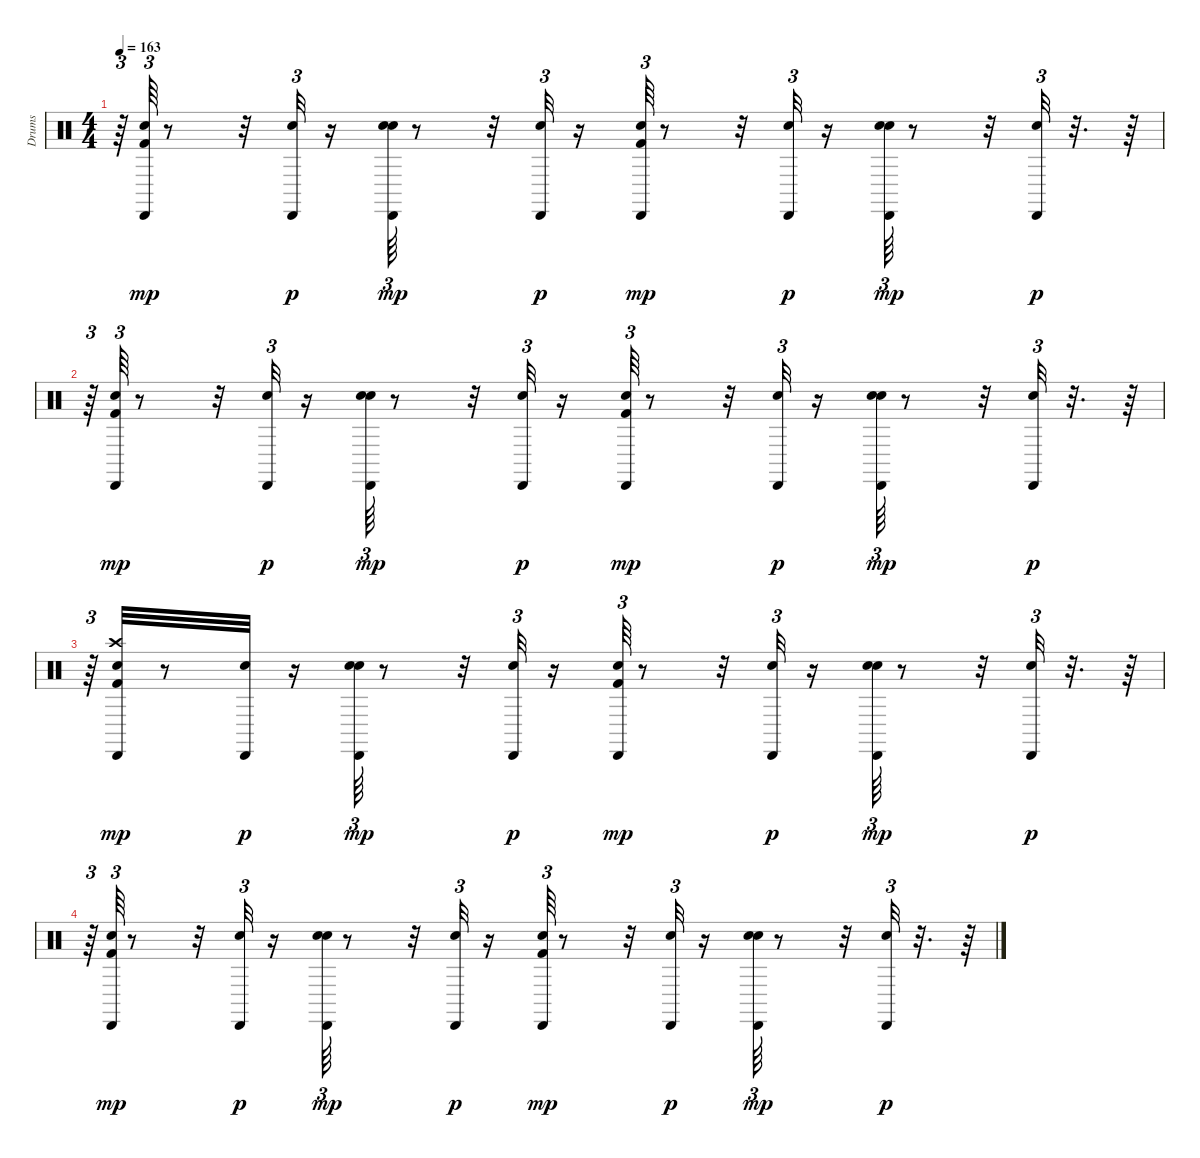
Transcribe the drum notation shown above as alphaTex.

\track ("Drums               " "Drums     ") {instrument percussion}
\staff {score}
\articulation defaults
\ts (4 4)
\tempo 163
\clef neutral
\ks c
r.64{tu (3 2) dy p} ("Kick (hit) 2" "Snare (hit) 2" "Cabasa (hit)").64{tu (3 2) dy mp} r.8 r.32 ("Snare (hit) 2" "Cabasa (hit)").32{tu (3 2) dy p} r.16 ("Snare (hit) 2" "Hand Clap (hit)" "Cabasa (hit)").64{tu (3 2) dy mp} r.8 r.32 ("Snare (hit) 2" "Cabasa (hit)").32{tu (3 2) dy p} r.16 ("Kick (hit) 2" "Snare (hit) 2" "Cabasa (hit)").64{tu (3 2) dy mp} r.8 r.32 ("Snare (hit) 2" "Cabasa (hit)").32{tu (3 2) dy p} r.16 ("Snare (hit) 2" "Hand Clap (hit)" "Cabasa (hit)").64{tu (3 2) dy mp} r.8 r.32 ("Snare (hit) 2" "Cabasa (hit)").32{tu (3 2) dy p} r.32{d} r.64 |
r.64{tu (3 2)} ("Kick (hit) 2" "Snare (hit) 2" "Cabasa (hit)").64{tu (3 2) dy mp} r.8 r.32 ("Snare (hit) 2" "Cabasa (hit)").32{tu (3 2) dy p} r.16 ("Snare (hit) 2" "Hand Clap (hit)" "Cabasa (hit)").64{tu (3 2) dy mp} r.8 r.32 ("Snare (hit) 2" "Cabasa (hit)").32{tu (3 2) dy p} r.16 ("Kick (hit) 2" "Snare (hit) 2" "Cabasa (hit)").64{tu (3 2) dy mp} r.8 r.32 ("Snare (hit) 2" "Cabasa (hit)").32{tu (3 2) dy p} r.16 ("Snare (hit) 2" "Hand Clap (hit)" "Cabasa (hit)").64{tu (3 2) dy mp} r.8 r.32 ("Snare (hit) 2" "Cabasa (hit)").32{tu (3 2) dy p} r.32{d} r.64 |
r.64{tu (3 2)} ("Kick (hit) 2" "Snare (hit) 2" "Crash high (hit)" "Cabasa (hit)").32{dy mp} r.8 ("Snare (hit) 2" "Cabasa (hit)").32{dy p} r.16 ("Snare (hit) 2" "Hand Clap (hit)" "Cabasa (hit)").64{tu (3 2) dy mp} r.8 r.32 ("Snare (hit) 2" "Cabasa (hit)").32{tu (3 2) dy p} r.16 ("Kick (hit) 2" "Snare (hit) 2" "Cabasa (hit)").64{tu (3 2) dy mp} r.8 r.32 ("Snare (hit) 2" "Cabasa (hit)").32{tu (3 2) dy p} r.16 ("Snare (hit) 2" "Hand Clap (hit)" "Cabasa (hit)").64{tu (3 2) dy mp} r.8 r.32 ("Snare (hit) 2" "Cabasa (hit)").32{tu (3 2) dy p} r.32{d} r.64 |
r.64{tu (3 2)} ("Kick (hit) 2" "Snare (hit) 2" "Cabasa (hit)").64{tu (3 2) dy mp} r.8 r.32 ("Snare (hit) 2" "Cabasa (hit)").32{tu (3 2) dy p} r.16 ("Snare (hit) 2" "Hand Clap (hit)" "Cabasa (hit)").64{tu (3 2) dy mp} r.8 r.32 ("Snare (hit) 2" "Cabasa (hit)").32{tu (3 2) dy p} r.16 ("Kick (hit) 2" "Snare (hit) 2" "Cabasa (hit)").64{tu (3 2) dy mp} r.8 r.32 ("Snare (hit) 2" "Cabasa (hit)").32{tu (3 2) dy p} r.16 ("Snare (hit) 2" "Hand Clap (hit)" "Cabasa (hit)").64{tu (3 2) dy mp} r.8 r.32 ("Snare (hit) 2" "Cabasa (hit)").32{tu (3 2) dy p} r.32{d} r.64
